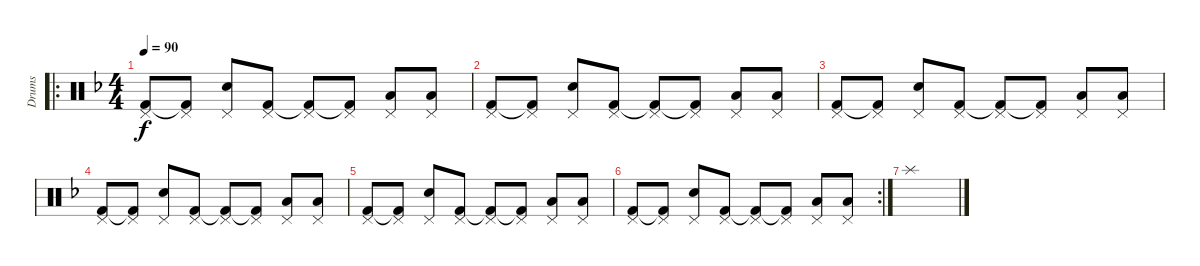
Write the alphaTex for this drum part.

\track ("Drums" "Drums") {instrument percussion}
\staff {score}
\articulation defaults
\ro
\ts (4 4)
\tempo 90
\clef neutral
\ks dminor
("Pedal Hi-Hat (hit)" "Kick (hit) 2").8{dy f} ("Pedal Hi-Hat (hit)" "Kick (hit) 2"{t}).8 ("Pedal Hi-Hat (hit)" "Snare (hit) 2").8 ("Pedal Hi-Hat (hit)" "Kick (hit) 2").8 ("Pedal Hi-Hat (hit)" "Kick (hit) 2"{t}).8 ("Pedal Hi-Hat (hit)" "Kick (hit) 2"{t}).8 ("Pedal Hi-Hat (hit)" "Low Tom (hit)").8 ("Pedal Hi-Hat (hit)" "Low Tom (hit)").8 |
("Pedal Hi-Hat (hit)" "Kick (hit) 2").8 ("Pedal Hi-Hat (hit)" "Kick (hit) 2"{t}).8 ("Pedal Hi-Hat (hit)" "Snare (hit) 2").8 ("Pedal Hi-Hat (hit)" "Kick (hit) 2").8 ("Pedal Hi-Hat (hit)" "Kick (hit) 2"{t}).8 ("Pedal Hi-Hat (hit)" "Kick (hit) 2"{t}).8 ("Pedal Hi-Hat (hit)" "Low Tom (hit)").8 ("Pedal Hi-Hat (hit)" "Low Tom (hit)").8 |
("Pedal Hi-Hat (hit)" "Kick (hit) 2").8 ("Pedal Hi-Hat (hit)" "Kick (hit) 2"{t}).8 ("Pedal Hi-Hat (hit)" "Snare (hit) 2").8 ("Pedal Hi-Hat (hit)" "Kick (hit) 2").8 ("Pedal Hi-Hat (hit)" "Kick (hit) 2"{t}).8 ("Pedal Hi-Hat (hit)" "Kick (hit) 2"{t}).8 ("Pedal Hi-Hat (hit)" "Low Tom (hit)").8 ("Pedal Hi-Hat (hit)" "Low Tom (hit)").8 |
("Pedal Hi-Hat (hit)" "Kick (hit) 2").8 ("Pedal Hi-Hat (hit)" "Kick (hit) 2"{t}).8 ("Pedal Hi-Hat (hit)" "Snare (hit) 2").8 ("Pedal Hi-Hat (hit)" "Kick (hit) 2").8 ("Pedal Hi-Hat (hit)" "Kick (hit) 2"{t}).8 ("Pedal Hi-Hat (hit)" "Kick (hit) 2"{t}).8 ("Pedal Hi-Hat (hit)" "Low Tom (hit)").8 ("Pedal Hi-Hat (hit)" "Low Tom (hit)").8 |
("Pedal Hi-Hat (hit)" "Kick (hit) 2").8 ("Pedal Hi-Hat (hit)" "Kick (hit) 2"{t}).8 ("Pedal Hi-Hat (hit)" "Snare (hit) 2").8 ("Pedal Hi-Hat (hit)" "Kick (hit) 2").8 ("Pedal Hi-Hat (hit)" "Kick (hit) 2"{t}).8 ("Pedal Hi-Hat (hit)" "Kick (hit) 2"{t}).8 ("Pedal Hi-Hat (hit)" "Low Tom (hit)").8 ("Pedal Hi-Hat (hit)" "Low Tom (hit)").8 |
\rc 2
("Pedal Hi-Hat (hit)" "Kick (hit) 2").8 ("Pedal Hi-Hat (hit)" "Kick (hit) 2"{t}).8 ("Pedal Hi-Hat (hit)" "Snare (hit) 2").8 ("Pedal Hi-Hat (hit)" "Kick (hit) 2").8 ("Pedal Hi-Hat (hit)" "Kick (hit) 2"{t}).8 ("Pedal Hi-Hat (hit)" "Kick (hit) 2"{t}).8 ("Pedal Hi-Hat (hit)" "Low Tom (hit)").8 ("Pedal Hi-Hat (hit)" "Low Tom (hit)").8 |
"Splash (hit)".1
